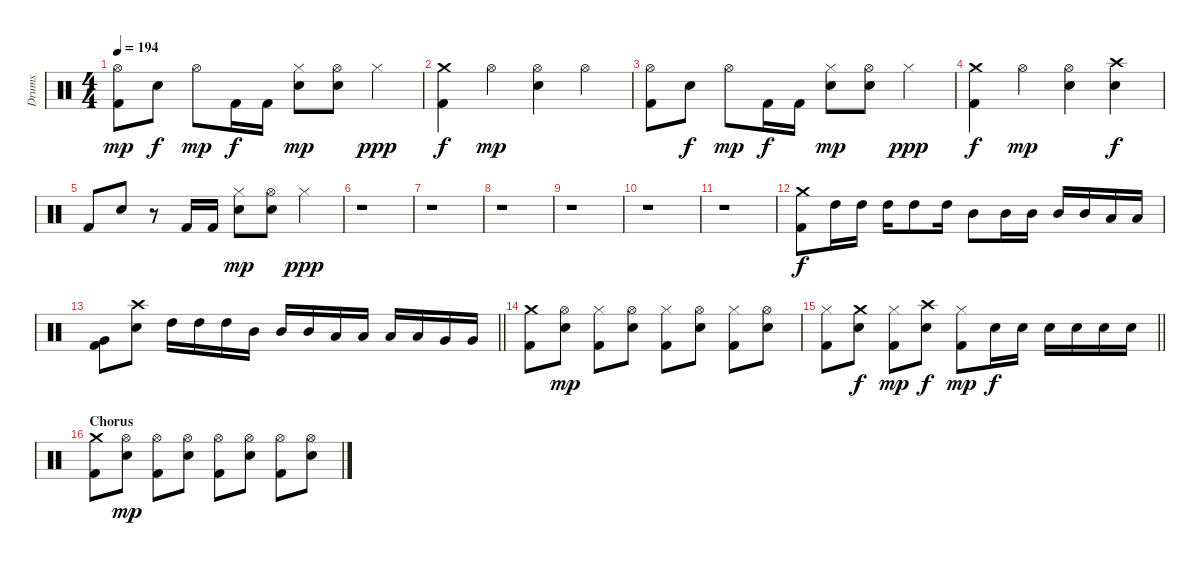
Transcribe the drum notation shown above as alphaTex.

\track ("Drums" "Drums") {instrument percussion}
\staff {score}
\articulation defaults
\ts (4 4)
\tempo 194
\clef neutral
\ks c
("Hi-Hat (open)" "Kick (hit) 2").8{dy mp} "Snare (hit) 2".8{dy f} "Hi-Hat (open)".8{dy mp} "Kick (hit) 2".16{dy f} "Kick (hit) 2".16 ("Hi-Hat (closed)" "Snare (hit) 2").8{dy mp} ("Hi-Hat (open)" "Snare (hit) 2").8 "Hi-Hat (closed)".4{dy ppp} |
("Crash medium (hit)" "Kick (hit) 2").4{dy f} "Hi-Hat (open)".4{dy mp} ("Hi-Hat (open)" "Snare (hit) 2").4 "Hi-Hat (open)".4 |
("Hi-Hat (open)" "Kick (hit) 2").8 "Snare (hit) 2".8{dy f} "Hi-Hat (open)".8{dy mp} "Kick (hit) 2".16{dy f} "Kick (hit) 2".16 ("Hi-Hat (closed)" "Snare (hit) 2").8{dy mp} ("Hi-Hat (open)" "Snare (hit) 2").8 "Hi-Hat (closed)".4{dy ppp} |
("Crash medium (hit)" "Kick (hit) 2").4{dy f} "Hi-Hat (open)".4{dy mp} ("Hi-Hat (open)" "Snare (hit) 2").4 ("Crash high (hit)" "Snare (hit) 2").4{dy f} |
"Kick (hit) 2".8 "Snare (hit) 2".8 r.8 "Kick (hit) 2".16 "Kick (hit) 2".16 ("Hi-Hat (closed)" "Snare (hit) 2").8{dy mp} ("Hi-Hat (open)" "Snare (hit) 2").8 "Hi-Hat (closed)".4{dy ppp} |
r.1 |
r.1 |
r.1 |
r.1 |
r.1 |
r.1 |
("Crash medium (hit)" "Kick (hit) 2").8{dy f} "High Tom (hit)".16 "High Tom (hit)".16 "High Tom (hit)".16 "High Tom (hit)".8 "High Tom (hit)".16 "Mid Tom (hit)".8 "Mid Tom (hit)".16 "Mid Tom (hit)".16 "Mid Tom (hit)".16 "Mid Tom (hit)".16 "Low Tom (hit)".16 "Low Tom (hit)".16 |
\barLineRight lightlight
("Very Low Tom (hit)" "Kick (hit) 2").8 ("Crash high (hit)" "Snare (hit) 2").8 "High Tom (hit)".16 "High Tom (hit)".16 "High Tom (hit)".16 "Mid Tom (hit)".16 "Mid Tom (hit)".16 "Mid Tom (hit)".16 "Low Tom (hit)".16 "Low Tom (hit)".16 "Low Tom (hit)".16 "Low Tom (hit)".16 "Very Low Tom (hit)".16 "Very Low Tom (hit)".16 |
("Crash medium (hit)" "Kick (hit) 2").8 ("Hi-Hat (open)" "Snare (hit) 2").8{dy mp} ("Hi-Hat (closed)" "Kick (hit) 2").8 ("Hi-Hat (open)" "Snare (hit) 2").8 ("Hi-Hat (closed)" "Kick (hit) 2").8 ("Hi-Hat (open)" "Snare (hit) 2").8 ("Hi-Hat (closed)" "Kick (hit) 2").8 ("Hi-Hat (open)" "Snare (hit) 2").8 |
\barLineRight lightlight
("Hi-Hat (closed)" "Kick (hit) 2").8 ("Crash medium (hit)" "Snare (hit) 2").8{dy f} ("Hi-Hat (closed)" "Kick (hit) 2").8{dy mp} ("Crash high (hit)" "Snare (hit) 2").8{dy f} ("Hi-Hat (closed)" "Kick (hit) 2").8{dy mp} "Snare (hit) 2".16{dy f} "Snare (hit) 2".16 "Snare (hit) 2".16 "Snare (hit) 2".16 "Snare (hit) 2".16 "Snare (hit) 2".16 |
\section ("" "Chorus")
("Crash medium (hit)" "Kick (hit) 2").8 ("Hi-Hat (open)" "Snare (hit) 2").8{dy mp} ("Hi-Hat (open)" "Kick (hit) 2").8 ("Hi-Hat (open)" "Snare (hit) 2").8 ("Hi-Hat (open)" "Kick (hit) 2").8 ("Hi-Hat (open)" "Snare (hit) 2").8 ("Hi-Hat (open)" "Kick (hit) 2").8 ("Hi-Hat (open)" "Snare (hit) 2").8
